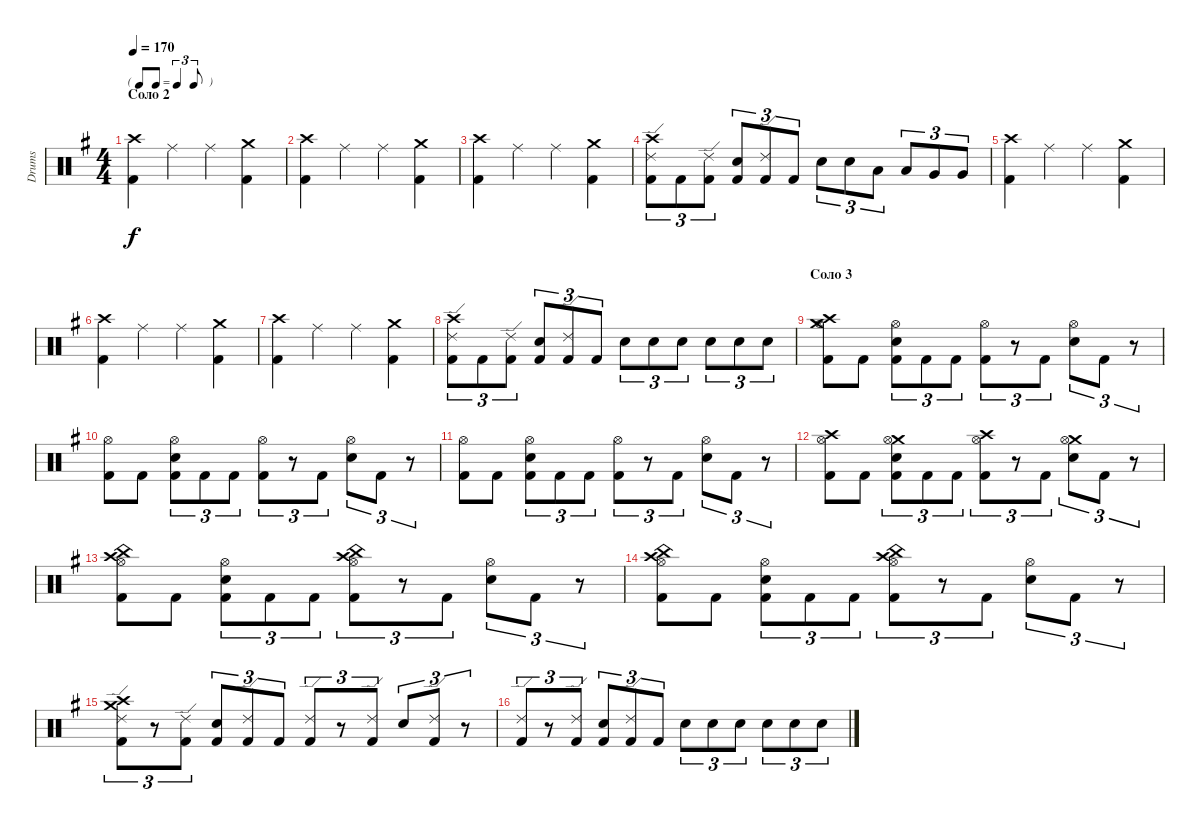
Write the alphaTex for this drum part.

\track ("Drums" "Drums") {instrument percussion}
\staff {score}
\articulation defaults
\ts (4 4)
\tf triplet8th
\section ("" "Соло 2")
\tempo 170
\clef neutral
\ks eminor
("Crash high (hit)" "Kick (hit) 2").4{dy f} "Ride (middle)".4 "Ride (middle)".4 ("Crash medium (hit)" "Kick (hit) 2").4 |
("Crash high (hit)" "Kick (hit) 2").4 "Ride (middle)".4 "Ride (middle)".4 ("Crash medium (hit)" "Kick (hit) 2").4 |
("Crash high (hit)" "Kick (hit) 2").4 "Ride (middle)".4 "Ride (middle)".4 ("Crash medium (hit)" "Kick (hit) 2").4 |
("Crash high (hit)" "Ride (edge) 2" "Kick (hit) 2").8{tu (3 2)} "Kick (hit) 2".8{tu (3 2)} ("Ride (edge) 2" "Kick (hit) 2").8{tu (3 2)} ("Electric Snare (hit)" "Kick (hit) 2").8{tu (3 2)} ("Ride (edge) 2" "Kick (hit) 2").8{tu (3 2)} "Kick (hit) 2".8{tu (3 2)} "Electric Snare (hit)".8{tu (3 2)} "Electric Snare (hit)".8{tu (3 2)} "Low Tom (hit)".8{tu (3 2)} "Low Tom (hit)".8{tu (3 2)} "Very Low Tom (hit)".8{tu (3 2)} "Very Low Tom (hit)".8{tu (3 2)} |
("Crash high (hit)" "Kick (hit) 2").4 "Ride (middle)".4 "Ride (middle)".4 ("Crash medium (hit)" "Kick (hit) 2").4 |
("Crash high (hit)" "Kick (hit) 2").4 "Ride (middle)".4 "Ride (middle)".4 ("Crash medium (hit)" "Kick (hit) 2").4 |
("Crash high (hit)" "Kick (hit) 2").4 "Ride (middle)".4 "Ride (middle)".4 ("Crash medium (hit)" "Kick (hit) 2").4 |
("Crash high (hit)" "Ride (edge) 2" "Kick (hit) 2").8{tu (3 2)} "Kick (hit) 2".8{tu (3 2)} ("Ride (edge) 2" "Kick (hit) 2").8{tu (3 2)} ("Electric Snare (hit)" "Kick (hit) 2").8{tu (3 2)} ("Ride (edge) 2" "Kick (hit) 2").8{tu (3 2)} "Kick (hit) 2".8{tu (3 2)} "Electric Snare (hit)".8{tu (3 2)} "Electric Snare (hit)".8{tu (3 2)} "Electric Snare (hit)".8{tu (3 2)} "Electric Snare (hit)".8{tu (3 2)} "Electric Snare (hit)".8{tu (3 2)} "Electric Snare (hit)".8{tu (3 2)} |
\section ("" "Соло 3")
("Crash high (hit)" "Crash medium (hit)" "Hi-Hat (open)" "Kick (hit) 2").8 "Kick (hit) 2".8 ("Electric Snare (hit)" "Hi-Hat (open)" "Kick (hit) 2").8{tu (3 2)} "Kick (hit) 2".8{tu (3 2)} "Kick (hit) 2".8{tu (3 2)} ("Hi-Hat (open)" "Kick (hit) 2").8{tu (3 2)} r.8{tu (3 2)} "Kick (hit) 2".8{tu (3 2)} ("Electric Snare (hit)" "Hi-Hat (open)").8{tu (3 2)} "Kick (hit) 2".8{tu (3 2)} r.8{tu (3 2)} |
("Hi-Hat (open)" "Kick (hit) 2").8 "Kick (hit) 2".8 ("Electric Snare (hit)" "Hi-Hat (open)" "Kick (hit) 2").8{tu (3 2)} "Kick (hit) 2".8{tu (3 2)} "Kick (hit) 2".8{tu (3 2)} ("Hi-Hat (open)" "Kick (hit) 2").8{tu (3 2)} r.8{tu (3 2)} "Kick (hit) 2".8{tu (3 2)} ("Electric Snare (hit)" "Hi-Hat (open)").8{tu (3 2)} "Kick (hit) 2".8{tu (3 2)} r.8{tu (3 2)} |
("Hi-Hat (open)" "Kick (hit) 2").8 "Kick (hit) 2".8 ("Electric Snare (hit)" "Hi-Hat (open)" "Kick (hit) 2").8{tu (3 2)} "Kick (hit) 2".8{tu (3 2)} "Kick (hit) 2".8{tu (3 2)} ("Hi-Hat (open)" "Kick (hit) 2").8{tu (3 2)} r.8{tu (3 2)} "Kick (hit) 2".8{tu (3 2)} ("Electric Snare (hit)" "Hi-Hat (open)").8{tu (3 2)} "Kick (hit) 2".8{tu (3 2)} r.8{tu (3 2)} |
("Crash high (hit)" "Hi-Hat (open)" "Kick (hit) 2").8 "Kick (hit) 2".8 ("Crash medium (hit)" "Electric Snare (hit)" "Hi-Hat (open)" "Kick (hit) 2").8{tu (3 2)} "Kick (hit) 2".8{tu (3 2)} "Kick (hit) 2".8{tu (3 2)} ("Crash high (hit)" "Hi-Hat (open)" "Kick (hit) 2").8{tu (3 2)} r.8{tu (3 2)} "Kick (hit) 2".8{tu (3 2)} ("Crash medium (hit)" "Electric Snare (hit)" "Hi-Hat (open)").8{tu (3 2)} "Kick (hit) 2".8{tu (3 2)} r.8{tu (3 2)} |
("Crash high (hit)" "China (hit)" "Hi-Hat (open)" "Kick (hit) 2").8 "Kick (hit) 2".8 ("Electric Snare (hit)" "Hi-Hat (open)" "Kick (hit) 2").8{tu (3 2)} "Kick (hit) 2".8{tu (3 2)} "Kick (hit) 2".8{tu (3 2)} ("Crash high (hit)" "China (hit)" "Hi-Hat (open)" "Kick (hit) 2").8{tu (3 2)} r.8{tu (3 2)} "Kick (hit) 2".8{tu (3 2)} ("Electric Snare (hit)" "Hi-Hat (open)").8{tu (3 2)} "Kick (hit) 2".8{tu (3 2)} r.8{tu (3 2)} |
("Crash high (hit)" "China (hit)" "Hi-Hat (open)" "Kick (hit) 2").8 "Kick (hit) 2".8 ("Electric Snare (hit)" "Hi-Hat (open)" "Kick (hit) 2").8{tu (3 2)} "Kick (hit) 2".8{tu (3 2)} "Kick (hit) 2".8{tu (3 2)} ("Crash high (hit)" "China (hit)" "Hi-Hat (open)" "Kick (hit) 2").8{tu (3 2)} r.8{tu (3 2)} "Kick (hit) 2".8{tu (3 2)} ("Electric Snare (hit)" "Hi-Hat (open)").8{tu (3 2)} "Kick (hit) 2".8{tu (3 2)} r.8{tu (3 2)} |
("Crash high (hit)" "Crash medium (hit)" "Ride (edge) 2" "Kick (hit) 2").8{tu (3 2)} r.8{tu (3 2)} ("Ride (edge) 2" "Kick (hit) 2").8{tu (3 2)} ("Electric Snare (hit)" "Kick (hit) 2").8{tu (3 2)} ("Ride (edge) 2" "Kick (hit) 2").8{tu (3 2)} "Kick (hit) 2".8{tu (3 2)} ("Ride (edge) 2" "Kick (hit) 2").8{tu (3 2)} r.8{tu (3 2)} ("Ride (edge) 2" "Kick (hit) 2").8{tu (3 2)} "Electric Snare (hit)".8{tu (3 2)} ("Ride (edge) 2" "Kick (hit) 2").8{tu (3 2)} r.8{tu (3 2)} |
("Ride (edge) 2" "Kick (hit) 2").8{tu (3 2)} r.8{tu (3 2)} ("Ride (edge) 2" "Kick (hit) 2").8{tu (3 2)} ("Electric Snare (hit)" "Kick (hit) 2").8{tu (3 2)} ("Ride (edge) 2" "Kick (hit) 2").8{tu (3 2)} "Kick (hit) 2".8{tu (3 2)} "Electric Snare (hit)".8{tu (3 2)} "Electric Snare (hit)".8{tu (3 2)} "Electric Snare (hit)".8{tu (3 2)} "Electric Snare (hit)".8{tu (3 2)} "Electric Snare (hit)".8{tu (3 2)} "Electric Snare (hit)".8{tu (3 2)}
